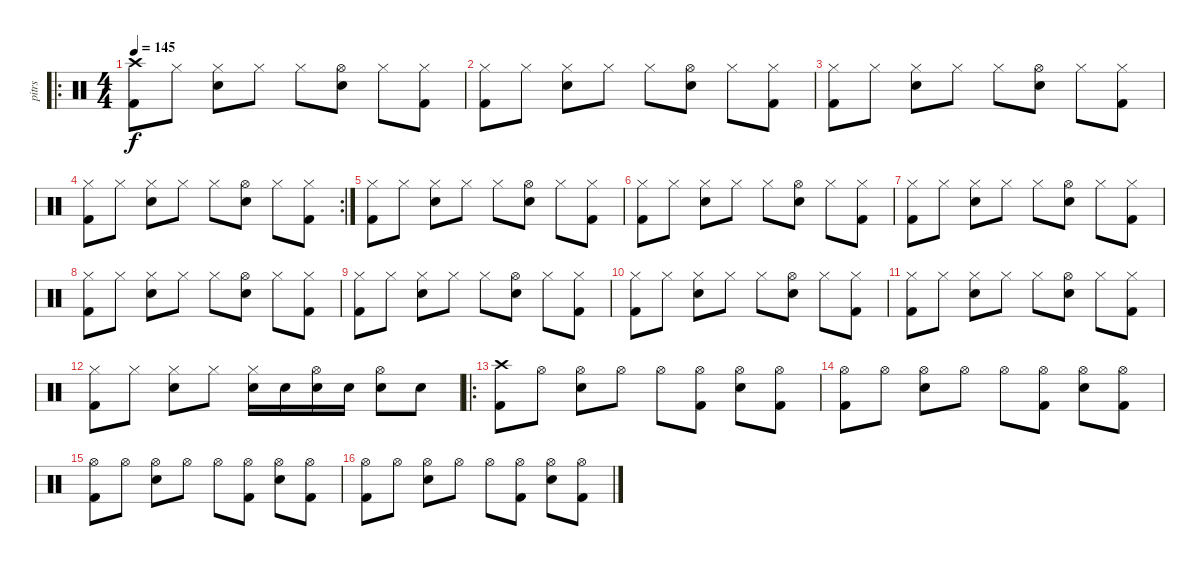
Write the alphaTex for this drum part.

\track ("pitrs" "pitrs") {instrument percussion}
\staff {score}
\articulation defaults
\ro
\ts (4 4)
\tempo 145
\clef neutral
\ks c
("Crash high (hit)" "Kick (hit) 2").8{dy f} "Hi-Hat (closed)".8 ("Hi-Hat (closed)" "Snare (hit) 2").8 "Hi-Hat (closed)".8 "Hi-Hat (closed)".8 ("Hi-Hat (open)" "Snare (hit) 2").8 "Hi-Hat (closed)".8 ("Hi-Hat (closed)" "Kick (hit) 2").8 |
("Hi-Hat (closed)" "Kick (hit) 2").8 "Hi-Hat (closed)".8 ("Hi-Hat (closed)" "Snare (hit) 2").8 "Hi-Hat (closed)".8 "Hi-Hat (closed)".8 ("Hi-Hat (open)" "Snare (hit) 2").8 "Hi-Hat (closed)".8 ("Hi-Hat (closed)" "Kick (hit) 2").8 |
("Hi-Hat (closed)" "Kick (hit) 2").8 "Hi-Hat (closed)".8 ("Hi-Hat (closed)" "Snare (hit) 2").8 "Hi-Hat (closed)".8 "Hi-Hat (closed)".8 ("Hi-Hat (open)" "Snare (hit) 2").8 "Hi-Hat (closed)".8 ("Hi-Hat (closed)" "Kick (hit) 2").8 |
\rc 2
("Hi-Hat (closed)" "Kick (hit) 2").8 "Hi-Hat (closed)".8 ("Hi-Hat (closed)" "Snare (hit) 2").8 "Hi-Hat (closed)".8 "Hi-Hat (closed)".8 ("Hi-Hat (open)" "Snare (hit) 2").8 "Hi-Hat (closed)".8 ("Hi-Hat (closed)" "Kick (hit) 2").8 |
("Hi-Hat (closed)" "Kick (hit) 2").8 "Hi-Hat (closed)".8 ("Hi-Hat (closed)" "Snare (hit) 2").8 "Hi-Hat (closed)".8 "Hi-Hat (closed)".8 ("Hi-Hat (open)" "Snare (hit) 2").8 "Hi-Hat (closed)".8 ("Hi-Hat (closed)" "Kick (hit) 2").8 |
("Hi-Hat (closed)" "Kick (hit) 2").8 "Hi-Hat (closed)".8 ("Hi-Hat (closed)" "Snare (hit) 2").8 "Hi-Hat (closed)".8 "Hi-Hat (closed)".8 ("Hi-Hat (open)" "Snare (hit) 2").8 "Hi-Hat (closed)".8 ("Hi-Hat (closed)" "Kick (hit) 2").8 |
("Hi-Hat (closed)" "Kick (hit) 2").8 "Hi-Hat (closed)".8 ("Hi-Hat (closed)" "Snare (hit) 2").8 "Hi-Hat (closed)".8 "Hi-Hat (closed)".8 ("Hi-Hat (open)" "Snare (hit) 2").8 "Hi-Hat (closed)".8 ("Hi-Hat (closed)" "Kick (hit) 2").8 |
("Hi-Hat (closed)" "Kick (hit) 2").8 "Hi-Hat (closed)".8 ("Hi-Hat (closed)" "Snare (hit) 2").8 "Hi-Hat (closed)".8 "Hi-Hat (closed)".8 ("Hi-Hat (open)" "Snare (hit) 2").8 "Hi-Hat (closed)".8 ("Hi-Hat (closed)" "Kick (hit) 2").8 |
("Hi-Hat (closed)" "Kick (hit) 2").8 "Hi-Hat (closed)".8 ("Hi-Hat (closed)" "Snare (hit) 2").8 "Hi-Hat (closed)".8 "Hi-Hat (closed)".8 ("Hi-Hat (open)" "Snare (hit) 2").8 "Hi-Hat (closed)".8 ("Hi-Hat (closed)" "Kick (hit) 2").8 |
("Hi-Hat (closed)" "Kick (hit) 2").8 "Hi-Hat (closed)".8 ("Hi-Hat (closed)" "Snare (hit) 2").8 "Hi-Hat (closed)".8 "Hi-Hat (closed)".8 ("Hi-Hat (open)" "Snare (hit) 2").8 "Hi-Hat (closed)".8 ("Hi-Hat (closed)" "Kick (hit) 2").8 |
("Hi-Hat (closed)" "Kick (hit) 2").8 "Hi-Hat (closed)".8 ("Hi-Hat (closed)" "Snare (hit) 2").8 "Hi-Hat (closed)".8 "Hi-Hat (closed)".8 ("Hi-Hat (open)" "Snare (hit) 2").8 "Hi-Hat (closed)".8 ("Hi-Hat (closed)" "Kick (hit) 2").8 |
("Hi-Hat (closed)" "Kick (hit) 2").8 "Hi-Hat (closed)".8 ("Hi-Hat (closed)" "Snare (hit) 2").8 "Hi-Hat (closed)".8 ("Hi-Hat (closed)" "Snare (hit) 2").16 "Snare (hit) 2".16 ("Hi-Hat (open)" "Snare (hit) 2").16 "Snare (hit) 2".16 ("Hi-Hat (open)" "Snare (hit) 2").8 "Snare (hit) 2".8 |
\ro
("Crash high (hit)" "Kick (hit) 2").8 "Hi-Hat (open)".8 ("Hi-Hat (open)" "Snare (hit) 2").8 "Hi-Hat (open)".8 "Hi-Hat (open)".8 ("Hi-Hat (open)" "Kick (hit) 2").8 ("Hi-Hat (open)" "Snare (hit) 2").8 ("Hi-Hat (open)" "Kick (hit) 2").8 |
("Hi-Hat (open)" "Kick (hit) 2").8 "Hi-Hat (open)".8 ("Hi-Hat (open)" "Snare (hit) 2").8 "Hi-Hat (open)".8 "Hi-Hat (open)".8 ("Hi-Hat (open)" "Kick (hit) 2").8 ("Hi-Hat (open)" "Snare (hit) 2").8 ("Hi-Hat (open)" "Kick (hit) 2").8 |
("Hi-Hat (open)" "Kick (hit) 2").8 "Hi-Hat (open)".8 ("Hi-Hat (open)" "Snare (hit) 2").8 "Hi-Hat (open)".8 "Hi-Hat (open)".8 ("Hi-Hat (open)" "Kick (hit) 2").8 ("Hi-Hat (open)" "Snare (hit) 2").8 ("Hi-Hat (open)" "Kick (hit) 2").8 |
("Hi-Hat (open)" "Kick (hit) 2").8 "Hi-Hat (open)".8 ("Hi-Hat (open)" "Snare (hit) 2").8 "Hi-Hat (open)".8 "Hi-Hat (open)".8 ("Hi-Hat (open)" "Kick (hit) 2").8 ("Hi-Hat (open)" "Snare (hit) 2").8 ("Hi-Hat (open)" "Kick (hit) 2").8
